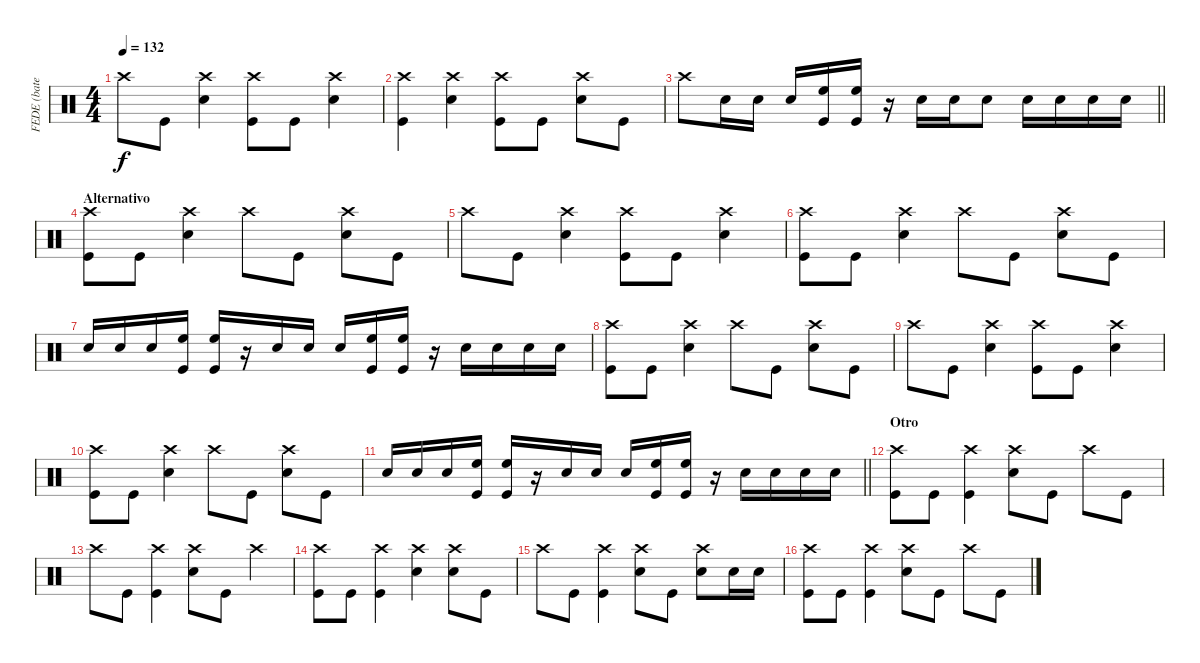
\track ("FEDE (bateria)" "FEDE (bate") {instrument percussion}
\staff {score}
\articulation defaults
\ts (4 4)
\tempo 132
\clef neutral
\ks c "Crash high (hit)".8{dy f} "Kick (hit)".8
("Crash high (hit)" "Snare (hit) 2").4 ("Crash high (hit)" "Kick (hit)").8 "Kick (hit)".8 ("Crash high (hit)" "Snare (hit) 2").4 |
("Crash high (hit)" "Kick (hit)").4 ("Crash high (hit)" "Snare (hit) 2").4 ("Crash high (hit)" "Kick (hit)").8 "Kick (hit)".8 ("Crash high (hit)" "Snare (hit) 2").8 "Kick (hit)".8 |
\barLineRight lightlight "Crash high (hit)".8 "Snare (hit) 2".16 "Snare (hit) 2".16 "Snare (hit) 2".16
("High Floor Tom (hit)" "Kick (hit)").16 ("High Floor Tom (hit)" "Kick (hit)").16 r.16 "Snare (hit) 2".16 "Snare (hit) 2".16 "Snare (hit) 2".8 "Snare (hit) 2".16 "Snare (hit) 2".16 "Snare (hit) 2".16 "Snare (hit) 2".16 |
\section ("" "Alternativo")
("Crash high (hit)" "Kick (hit)").8 "Kick (hit)".8 ("Crash high (hit)" "Snare (hit) 2").4 "Crash high (hit)".8 "Kick (hit)".8 ("Crash high (hit)" "Snare (hit) 2").8 "Kick (hit)".8 |
"Crash high (hit)".8 "Kick (hit)".8 ("Crash high (hit)" "Snare (hit) 2").4 ("Crash high (hit)" "Kick (hit)").8 "Kick (hit)".8 ("Crash high (hit)" "Snare (hit) 2").4 |
("Crash high (hit)" "Kick (hit)").8 "Kick (hit)".8 ("Crash high (hit)" "Snare (hit) 2").4 "Crash high (hit)".8 "Kick (hit)".8 ("Crash high (hit)" "Snare (hit) 2").8 "Kick (hit)".8 |
"Snare (hit) 2".16 "Snare (hit) 2".16 "Snare (hit) 2".16 ("High Floor Tom (hit)" "Kick (hit)").16 ("High Floor Tom (hit)" "Kick (hit)").16 r.16 "Snare (hit) 2".16 "Snare (hit) 2".16 "Snare (hit) 2".16 ("High Floor Tom (hit)" "Kick (hit)").16 ("High Floor Tom (hit)" "Kick (hit)").16 r.16 "Snare (hit) 2".16 "Snare (hit) 2".16 "Snare (hit) 2".16 "Snare (hit) 2".16 |
("Crash high (hit)" "Kick (hit)").8 "Kick (hit)".8 ("Crash high (hit)" "Snare (hit) 2").4 "Crash high (hit)".8 "Kick (hit)".8 ("Crash high (hit)" "Snare (hit) 2").8 "Kick (hit)".8 |
"Crash high (hit)".8 "Kick (hit)".8 ("Crash high (hit)" "Snare (hit) 2").4 ("Crash high (hit)" "Kick (hit)").8 "Kick (hit)".8 ("Crash high (hit)" "Snare (hit) 2").4 |
("Crash high (hit)" "Kick (hit)").8 "Kick (hit)".8 ("Crash high (hit)" "Snare (hit) 2").4 "Crash high (hit)".8 "Kick (hit)".8 ("Crash high (hit)" "Snare (hit) 2").8 "Kick (hit)".8 |
\barLineRight lightlight "Snare (hit) 2".16 "Snare (hit) 2".16 "Snare (hit) 2".16
("High Floor Tom (hit)" "Kick (hit)").16 ("High Floor Tom (hit)" "Kick (hit)").16 r.16 "Snare (hit) 2".16 "Snare (hit) 2".16 "Snare (hit) 2".16 ("High Floor Tom (hit)" "Kick (hit)").16 ("High Floor Tom (hit)" "Kick (hit)").16 r.16 "Snare (hit) 2".16 "Snare (hit) 2".16 "Snare (hit) 2".16 "Snare (hit) 2".16 |
\section ("" "Otro")
("Crash high (hit)" "Kick (hit)").8 "Kick (hit)".8 ("Crash high (hit)" "Kick (hit)").4 ("Crash high (hit)" "Snare (hit) 2").8 "Kick (hit)".8 "Crash high (hit)".8 "Kick (hit)".8 |
"Crash high (hit)".8 "Kick (hit)".8 ("Crash high (hit)" "Kick (hit)").4 ("Crash high (hit)" "Snare (hit) 2").8 "Kick (hit)".8 "Crash high (hit)".4 |
("Crash high (hit)" "Kick (hit)").8 "Kick (hit)".8 ("Crash high (hit)" "Kick (hit)").4 ("Crash high (hit)" "Snare (hit) 2").4 ("Crash high (hit)" "Snare (hit) 2").8 "Kick (hit)".8 |
"Crash high (hit)".8 "Kick (hit)".8 ("Crash high (hit)" "Kick (hit)").4 ("Crash high (hit)" "Snare (hit) 2").8 "Kick (hit)".8 ("Crash high (hit)" "Snare (hit) 2").8 "Snare (hit) 2".16 "Snare (hit) 2".16 |
("Crash high (hit)" "Kick (hit)").8 "Kick (hit)".8 ("Crash high (hit)" "Kick (hit)").4 ("Crash high (hit)" "Snare (hit) 2").8 "Kick (hit)".8 "Crash high (hit)".8 "Kick (hit)".8
